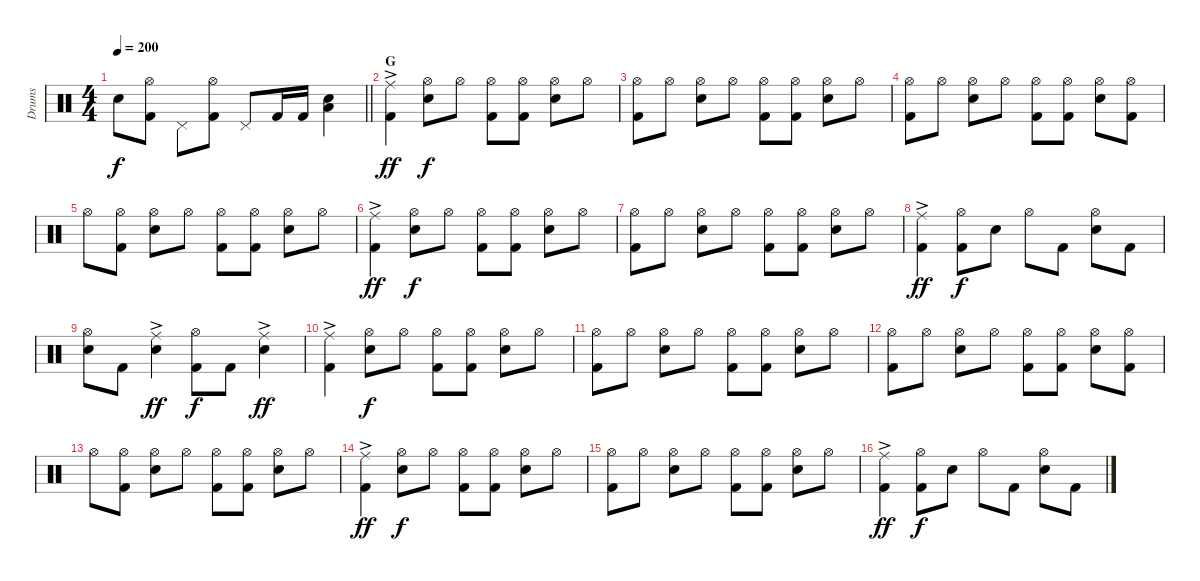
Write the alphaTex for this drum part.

\track ("Drums" "Drums") {instrument percussion}
\staff {score}
\articulation defaults
\ts (4 4)
\tempo 200
\clef neutral
\barLineRight lightlight
\ks c "Snare (hit) 2".8{dy f}
("Hi-Hat (open)" "Kick (hit) 2").8 "Pedal Hi-Hat (hit)".8 ("Hi-Hat (open)" "Kick (hit) 2").8 "Pedal Hi-Hat (hit)".8 "Kick (hit) 2".16 "Kick (hit) 2".16 ("Snare (hit) 2" "Low Tom (hit)").4 |
\section ("" "G")
("Ride (middle)"{ac} "Kick (hit) 2").4{dy ff} ("Hi-Hat (open)" "Snare (hit) 2").8{dy f} "Hi-Hat (open)".8 ("Hi-Hat (open)" "Kick (hit) 2").8 ("Hi-Hat (open)" "Kick (hit) 2").8 ("Hi-Hat (open)" "Snare (hit) 2").8 "Hi-Hat (open)".8 |
("Hi-Hat (open)" "Kick (hit) 2").8 "Hi-Hat (open)".8 ("Hi-Hat (open)" "Snare (hit) 2").8 "Hi-Hat (open)".8 ("Hi-Hat (open)" "Kick (hit) 2").8 ("Hi-Hat (open)" "Kick (hit) 2").8 ("Hi-Hat (open)" "Snare (hit) 2").8 "Hi-Hat (open)".8 |
("Hi-Hat (open)" "Kick (hit) 2").8 "Hi-Hat (open)".8 ("Hi-Hat (open)" "Snare (hit) 2").8 "Hi-Hat (open)".8 ("Hi-Hat (open)" "Kick (hit) 2").8 ("Hi-Hat (open)" "Kick (hit) 2").8 ("Hi-Hat (open)" "Snare (hit) 2").8 ("Hi-Hat (open)" "Kick (hit) 2").8 |
"Hi-Hat (open)".8 ("Hi-Hat (open)" "Kick (hit) 2").8 ("Hi-Hat (open)" "Snare (hit) 2").8 "Hi-Hat (open)".8 ("Hi-Hat (open)" "Kick (hit) 2").8 ("Hi-Hat (open)" "Kick (hit) 2").8 ("Hi-Hat (open)" "Snare (hit) 2").8 "Hi-Hat (open)".8 |
("Ride (middle)"{ac} "Kick (hit) 2").4{dy ff} ("Hi-Hat (open)" "Snare (hit) 2").8{dy f} "Hi-Hat (open)".8 ("Hi-Hat (open)" "Kick (hit) 2").8 ("Hi-Hat (open)" "Kick (hit) 2").8 ("Hi-Hat (open)" "Snare (hit) 2").8 "Hi-Hat (open)".8 |
("Hi-Hat (open)" "Kick (hit) 2").8 "Hi-Hat (open)".8 ("Hi-Hat (open)" "Snare (hit) 2").8 "Hi-Hat (open)".8 ("Hi-Hat (open)" "Kick (hit) 2").8 ("Hi-Hat (open)" "Kick (hit) 2").8 ("Hi-Hat (open)" "Snare (hit) 2").8 "Hi-Hat (open)".8 |
("Ride (middle)"{ac} "Kick (hit) 2").4{dy ff} ("Hi-Hat (open)" "Kick (hit) 2").8{dy f} "Snare (hit) 2".8 "Hi-Hat (open)".8 "Kick (hit) 2".8 ("Hi-Hat (open)" "Snare (hit) 2").8 "Kick (hit) 2".8 |
("Hi-Hat (open)" "Snare (hit) 2").8 "Kick (hit) 2".8 ("Ride (middle)"{ac} "Snare (hit) 2").4{dy ff} ("Hi-Hat (open)" "Kick (hit) 2").8{dy f} "Kick (hit) 2".8 ("Ride (middle)"{ac} "Snare (hit) 2").4{dy ff} |
("Ride (middle)"{ac} "Kick (hit) 2").4 ("Hi-Hat (open)" "Snare (hit) 2").8{dy f} "Hi-Hat (open)".8 ("Hi-Hat (open)" "Kick (hit) 2").8 ("Hi-Hat (open)" "Kick (hit) 2").8 ("Hi-Hat (open)" "Snare (hit) 2").8 "Hi-Hat (open)".8 |
("Hi-Hat (open)" "Kick (hit) 2").8 "Hi-Hat (open)".8 ("Hi-Hat (open)" "Snare (hit) 2").8 "Hi-Hat (open)".8 ("Hi-Hat (open)" "Kick (hit) 2").8 ("Hi-Hat (open)" "Kick (hit) 2").8 ("Hi-Hat (open)" "Snare (hit) 2").8 "Hi-Hat (open)".8 |
("Hi-Hat (open)" "Kick (hit) 2").8 "Hi-Hat (open)".8 ("Hi-Hat (open)" "Snare (hit) 2").8 "Hi-Hat (open)".8 ("Hi-Hat (open)" "Kick (hit) 2").8 ("Hi-Hat (open)" "Kick (hit) 2").8 ("Hi-Hat (open)" "Snare (hit) 2").8 ("Hi-Hat (open)" "Kick (hit) 2").8 |
"Hi-Hat (open)".8 ("Hi-Hat (open)" "Kick (hit) 2").8 ("Hi-Hat (open)" "Snare (hit) 2").8 "Hi-Hat (open)".8 ("Hi-Hat (open)" "Kick (hit) 2").8 ("Hi-Hat (open)" "Kick (hit) 2").8 ("Hi-Hat (open)" "Snare (hit) 2").8 "Hi-Hat (open)".8 |
("Ride (middle)"{ac} "Kick (hit) 2").4{dy ff} ("Hi-Hat (open)" "Snare (hit) 2").8{dy f} "Hi-Hat (open)".8 ("Hi-Hat (open)" "Kick (hit) 2").8 ("Hi-Hat (open)" "Kick (hit) 2").8 ("Hi-Hat (open)" "Snare (hit) 2").8 "Hi-Hat (open)".8 |
("Hi-Hat (open)" "Kick (hit) 2").8 "Hi-Hat (open)".8 ("Hi-Hat (open)" "Snare (hit) 2").8 "Hi-Hat (open)".8 ("Hi-Hat (open)" "Kick (hit) 2").8 ("Hi-Hat (open)" "Kick (hit) 2").8 ("Hi-Hat (open)" "Snare (hit) 2").8 "Hi-Hat (open)".8 |
("Ride (middle)"{ac} "Kick (hit) 2").4{dy ff} ("Hi-Hat (open)" "Kick (hit) 2").8{dy f} "Snare (hit) 2".8 "Hi-Hat (open)".8 "Kick (hit) 2".8 ("Hi-Hat (open)" "Snare (hit) 2").8 "Kick (hit) 2".8
